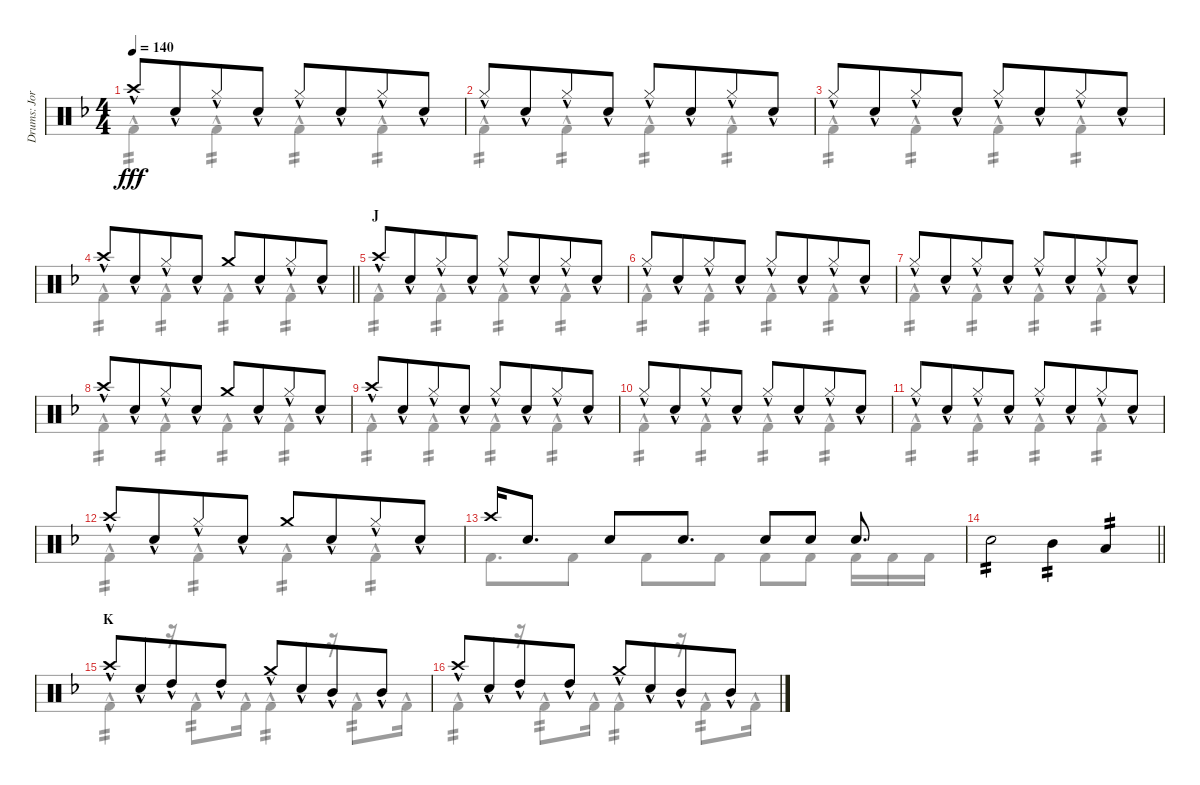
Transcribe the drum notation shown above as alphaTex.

\track ("Drums: Jorg" "Drums: Jor") {instrument percussion}
\staff {score}
\articulation defaults
\voice
\ts (4 4)
\tempo 140
\clef neutral
\ks f "Crash high (hit)"{hac}.8{dy fff} "Snare (hit) 2"{hac}.8{beam merge} "Hi-Hat (closed)"{hac}.8 "Snare (hit) 2"{hac}.8 "Hi-Hat (closed)"{hac}.8 "Snare (hit) 2"{hac}.8{beam merge} "Hi-Hat (closed)"{hac}.8 "Snare (hit) 2"{hac}.8
|
"Hi-Hat (closed)"{hac}.8 "Snare (hit) 2"{hac}.8{beam merge} "Hi-Hat (closed)"{hac}.8 "Snare (hit) 2"{hac}.8 "Hi-Hat (closed)"{hac}.8 "Snare (hit) 2"{hac}.8{beam merge} "Hi-Hat (closed)"{hac}.8 "Snare (hit) 2"{hac}.8 |
"Hi-Hat (closed)"{hac}.8 "Snare (hit) 2"{hac}.8{beam merge} "Hi-Hat (closed)"{hac}.8 "Snare (hit) 2"{hac}.8 "Hi-Hat (closed)"{hac}.8 "Snare (hit) 2"{hac}.8{beam merge} "Hi-Hat (closed)"{hac}.8 "Snare (hit) 2"{hac}.8 |
\barLineRight lightlight "Crash high (hit)"{hac}.8 "Snare (hit) 2"{hac}.8{beam merge} "Hi-Hat (closed)"{hac}.8 "Snare (hit) 2"{hac}.8 "Crash medium (hit)".8 "Snare (hit) 2"{hac}.8{beam merge} "Hi-Hat (closed)"{hac}.8 "Snare (hit) 2"{hac}.8
|
\section ("" "J")
"Crash high (hit)"{hac}.8 "Snare (hit) 2"{hac}.8{beam merge} "Hi-Hat (closed)"{hac}.8 "Snare (hit) 2"{hac}.8 "Hi-Hat (closed)"{hac}.8 "Snare (hit) 2"{hac}.8{beam merge} "Hi-Hat (closed)"{hac}.8 "Snare (hit) 2"{hac}.8 |
"Hi-Hat (closed)"{hac}.8 "Snare (hit) 2"{hac}.8{beam merge} "Hi-Hat (closed)"{hac}.8 "Snare (hit) 2"{hac}.8 "Hi-Hat (closed)"{hac}.8 "Snare (hit) 2"{hac}.8{beam merge} "Hi-Hat (closed)"{hac}.8 "Snare (hit) 2"{hac}.8 |
"Hi-Hat (closed)"{hac}.8 "Snare (hit) 2"{hac}.8{beam merge} "Hi-Hat (closed)"{hac}.8 "Snare (hit) 2"{hac}.8 "Hi-Hat (closed)"{hac}.8 "Snare (hit) 2"{hac}.8{beam merge} "Hi-Hat (closed)"{hac}.8 "Snare (hit) 2"{hac}.8 |
"Crash high (hit)"{hac}.8 "Snare (hit) 2"{hac}.8{beam merge} "Hi-Hat (closed)"{hac}.8 "Snare (hit) 2"{hac}.8 "Crash medium (hit)".8 "Snare (hit) 2"{hac}.8{beam merge} "Hi-Hat (closed)"{hac}.8 "Snare (hit) 2"{hac}.8 |
"Crash high (hit)"{hac}.8 "Snare (hit) 2"{hac}.8{beam merge} "Hi-Hat (closed)"{hac}.8 "Snare (hit) 2"{hac}.8 "Hi-Hat (closed)"{hac}.8 "Snare (hit) 2"{hac}.8{beam merge} "Hi-Hat (closed)"{hac}.8 "Snare (hit) 2"{hac}.8 |
"Hi-Hat (closed)"{hac}.8 "Snare (hit) 2"{hac}.8{beam merge} "Hi-Hat (closed)"{hac}.8 "Snare (hit) 2"{hac}.8 "Hi-Hat (closed)"{hac}.8 "Snare (hit) 2"{hac}.8{beam merge} "Hi-Hat (closed)"{hac}.8 "Snare (hit) 2"{hac}.8 |
"Hi-Hat (closed)"{hac}.8 "Snare (hit) 2"{hac}.8{beam merge} "Hi-Hat (closed)"{hac}.8 "Snare (hit) 2"{hac}.8 "Hi-Hat (closed)"{hac}.8 "Snare (hit) 2"{hac}.8{beam merge} "Hi-Hat (closed)"{hac}.8 "Snare (hit) 2"{hac}.8 |
"Crash high (hit)"{hac}.8 "Snare (hit) 2"{hac}.8{beam merge} "Hi-Hat (closed)"{hac}.8 "Snare (hit) 2"{hac}.8 "Crash medium (hit)".8 "Snare (hit) 2"{hac}.8{beam merge} "Hi-Hat (closed)"{hac}.8 "Snare (hit) 2"{hac}.8 |
"Crash high (hit)".16 "Snare (hit) 2".8{d} "Snare (hit) 2".8 "Snare (hit) 2".8{d} "Snare (hit) 2".8 "Snare (hit) 2".8 "Snare (hit) 2".8{d} |
\barLineRight lightlight "Snare (hit) 2".2{tp 2} "Mid Tom (hit)".4{tp 2} "Low Tom (hit)".4{tp 2}
|
\section ("" "K")
"Crash high (hit)"{hac}.8 "Snare (hit) 2"{hac}.8{beam merge} "High Tom (hit)"{hac}.8 "High Tom (hit)"{hac}.8 "Crash medium (hit)"{hac}.8 "Snare (hit) 2"{hac}.8{beam merge} "Mid Tom (hit)"{hac}.8 "Mid Tom (hit)"{hac}.8 |
"Crash high (hit)"{hac}.8 "Snare (hit) 2"{hac}.8{beam merge} "High Tom (hit)"{hac}.8 "High Tom (hit)"{hac}.8 "Crash medium (hit)"{hac}.8 "Snare (hit) 2"{hac}.8{beam merge} "Mid Tom (hit)"{hac}.8 "Mid Tom (hit)"{hac}.8
\voice
\clef neutral
\ottava regular
\simile none
\ks f "Kick (hit) 2"{hac}.4{tp 2 dy fff beam merge} "Kick (hit) 2"{hac}.4{tp 2} "Kick (hit) 2"{hac}.4{tp 2} "Kick (hit) 2"{hac}.4{tp 2}
|
"Kick (hit) 2"{hac}.4{tp 2 beam merge} "Kick (hit) 2"{hac}.4{tp 2} "Kick (hit) 2"{hac}.4{tp 2} "Kick (hit) 2"{hac}.4{tp 2} |
"Kick (hit) 2"{hac}.4{tp 2 beam merge} "Kick (hit) 2"{hac}.4{tp 2} "Kick (hit) 2"{hac}.4{tp 2} "Kick (hit) 2"{hac}.4{tp 2} |
\barLineRight lightlight "Kick (hit) 2"{hac}.4{tp 2 beam merge} "Kick (hit) 2"{hac}.4{tp 2} "Kick (hit) 2"{hac}.4{tp 2} "Kick (hit) 2"{hac}.4{tp 2}
|
"Kick (hit) 2"{hac}.4{tp 2 beam merge} "Kick (hit) 2"{hac}.4{tp 2} "Kick (hit) 2"{hac}.4{tp 2} "Kick (hit) 2"{hac}.4{tp 2} |
"Kick (hit) 2"{hac}.4{tp 2 beam merge} "Kick (hit) 2"{hac}.4{tp 2} "Kick (hit) 2"{hac}.4{tp 2} "Kick (hit) 2"{hac}.4{tp 2} |
"Kick (hit) 2"{hac}.4{tp 2 beam merge} "Kick (hit) 2"{hac}.4{tp 2} "Kick (hit) 2"{hac}.4{tp 2} "Kick (hit) 2"{hac}.4{tp 2} |
"Kick (hit) 2"{hac}.4{tp 2 beam merge} "Kick (hit) 2"{hac}.4{tp 2} "Kick (hit) 2"{hac}.4{tp 2} "Kick (hit) 2"{hac}.4{tp 2} |
"Kick (hit) 2"{hac}.4{tp 2 beam merge} "Kick (hit) 2"{hac}.4{tp 2} "Kick (hit) 2"{hac}.4{tp 2} "Kick (hit) 2"{hac}.4{tp 2} |
"Kick (hit) 2"{hac}.4{tp 2 beam merge} "Kick (hit) 2"{hac}.4{tp 2} "Kick (hit) 2"{hac}.4{tp 2} "Kick (hit) 2"{hac}.4{tp 2} |
"Kick (hit) 2"{hac}.4{tp 2 beam merge} "Kick (hit) 2"{hac}.4{tp 2} "Kick (hit) 2"{hac}.4{tp 2} "Kick (hit) 2"{hac}.4{tp 2} |
"Kick (hit) 2"{hac}.4{tp 2 beam merge} "Kick (hit) 2"{hac}.4{tp 2} "Kick (hit) 2"{hac}.4{tp 2} "Kick (hit) 2"{hac}.4{tp 2} |
"Kick (hit) 2".8{d} "Kick (hit) 2".8 "Kick (hit) 2".8 "Kick (hit) 2".8 "Kick (hit) 2".8 "Kick (hit) 2".8 "Kick (hit) 2".16 "Kick (hit) 2".16 "Kick (hit) 2".16 |
\barLineRight lightlight
|
"Kick (hit) 2"{hac}.4{tp 2} r.16 "Kick (hit) 2"{hac}.8{tp 2} "Kick (hit) 2"{hac}.16 "Kick (hit) 2"{hac}.4{tp 2} r.16 "Kick (hit) 2"{hac}.8{tp 2} "Kick (hit) 2"{hac}.16 |
"Kick (hit) 2"{hac}.4{tp 2} r.16 "Kick (hit) 2"{hac}.8{tp 2} "Kick (hit) 2"{hac}.16 "Kick (hit) 2"{hac}.4{tp 2} r.16 "Kick (hit) 2"{hac}.8{tp 2} "Kick (hit) 2"{hac}.16
